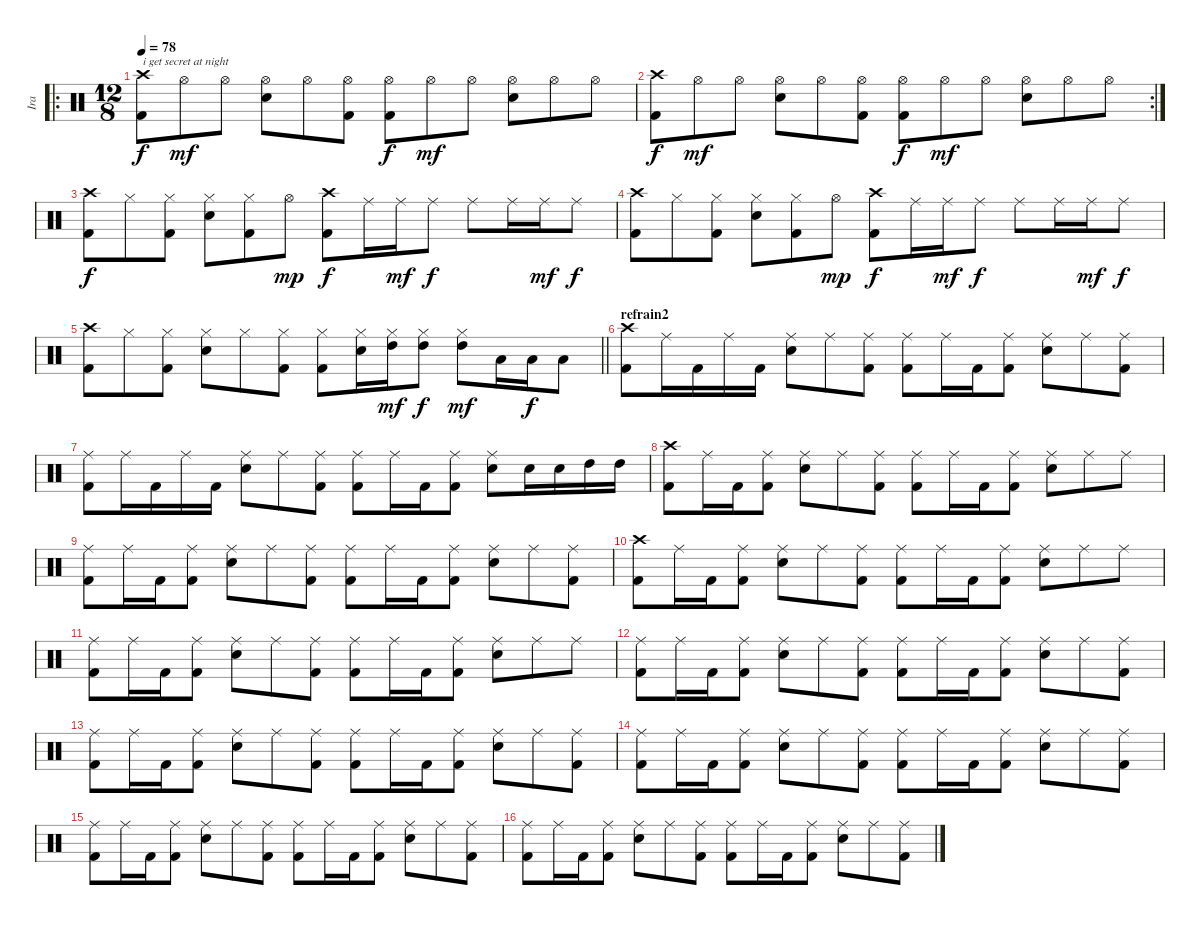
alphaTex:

\track ("Ira" "Ira") {instrument percussion}
\staff {score}
\articulation defaults
\ro
\ts (12 8)
\tempo 78
\clef neutral
\ks c
("Crash high (hit)" "Kick (hit) 2").8{txt "i get secret at night" dy f} "Hi-Hat (open)".8{dy mf} "Hi-Hat (open)".8 ("Hi-Hat (open)" "Snare (hit) 2").8 "Hi-Hat (open)".8 ("Hi-Hat (open)" "Kick (hit) 2").8 ("Hi-Hat (open)" "Kick (hit) 2").8{dy f} "Hi-Hat (open)".8{dy mf} "Hi-Hat (open)".8 ("Hi-Hat (open)" "Snare (hit) 2").8 "Hi-Hat (open)".8 "Hi-Hat (open)".8 |
\rc 2
("Crash high (hit)" "Kick (hit) 2").8{dy f} "Hi-Hat (open)".8{dy mf} "Hi-Hat (open)".8 ("Hi-Hat (open)" "Snare (hit) 2").8 "Hi-Hat (open)".8 ("Hi-Hat (open)" "Kick (hit) 2").8 ("Hi-Hat (open)" "Kick (hit) 2").8{dy f} "Hi-Hat (open)".8{dy mf} "Hi-Hat (open)".8 ("Hi-Hat (open)" "Snare (hit) 2").8 "Hi-Hat (open)".8 "Hi-Hat (open)".8 |
("Crash high (hit)" "Kick (hit) 2").8{dy f} "Hi-Hat (closed)".8 ("Hi-Hat (closed)" "Kick (hit) 2").8 ("Hi-Hat (closed)" "Snare (hit) 2").8 ("Hi-Hat (closed)" "Kick (hit) 2").8 "Hi-Hat (open)".8{dy mp} ("Crash high (hit)" "Kick (hit) 2").8{dy f} "Ride (middle)".16 "Ride (middle)".16{dy mf} "Ride (middle)".8{dy f} "Ride (middle)".8 "Ride (middle)".16 "Ride (middle)".16{dy mf} "Ride (middle)".8{dy f} |
("Crash high (hit)" "Kick (hit) 2").8 "Hi-Hat (closed)".8 ("Hi-Hat (closed)" "Kick (hit) 2").8 ("Hi-Hat (closed)" "Snare (hit) 2").8 ("Hi-Hat (closed)" "Kick (hit) 2").8 "Hi-Hat (open)".8{dy mp} ("Crash high (hit)" "Kick (hit) 2").8{dy f} "Ride (middle)".16 "Ride (middle)".16{dy mf} "Ride (middle)".8{dy f} "Ride (middle)".8 "Ride (middle)".16 "Ride (middle)".16{dy mf} "Ride (middle)".8{dy f} |
\barLineRight lightlight
("Crash high (hit)" "Kick (hit) 2").8 "Hi-Hat (closed)".8 ("Hi-Hat (closed)" "Kick (hit) 2").8 ("Hi-Hat (closed)" "Snare (hit) 2").8 "Hi-Hat (closed)".8 ("Hi-Hat (closed)" "Kick (hit) 2").8 ("Hi-Hat (closed)" "Kick (hit) 2").8 ("Hi-Hat (closed)" "Snare (hit) 2").16 ("Hi-Hat (closed)" "High Tom (hit)").16{dy mf} ("Hi-Hat (closed)" "High Tom (hit)").8{dy f} ("Hi-Hat (closed)" "High Tom (hit)").8{dy mf} "Low Floor Tom (hit)".16 "Low Floor Tom (hit)".16{dy f} "Low Floor Tom (hit)".8 |
\section ("" "refrain2")
("Crash high (hit)" "Kick (hit) 2").8 "Ride (middle)".16 "Kick (hit) 2".16 "Ride (middle)".16 "Kick (hit) 2".16 ("Ride (middle)" "Snare (hit) 2").8 "Ride (middle)".8 ("Ride (middle)" "Kick (hit) 2").8 ("Ride (middle)" "Kick (hit) 2").8 "Ride (middle)".16 "Kick (hit) 2".16 ("Ride (middle)" "Kick (hit) 2").8 ("Ride (middle)" "Snare (hit) 2").8 "Ride (middle)".8 ("Ride (middle)" "Kick (hit) 2").8 |
("Ride (middle)" "Kick (hit) 2").8 "Ride (middle)".16 "Kick (hit) 2".16 "Ride (middle)".16 "Kick (hit) 2".16 ("Ride (middle)" "Snare (hit) 2").8 "Ride (middle)".8 ("Ride (middle)" "Kick (hit) 2").8 ("Ride (middle)" "Kick (hit) 2").8 "Ride (middle)".16 "Kick (hit) 2".16 ("Ride (middle)" "Kick (hit) 2").8 ("Ride (middle)" "Snare (hit) 2").8 "Snare (hit) 2".16 "Snare (hit) 2".16 "High Tom (hit)".16 "High Tom (hit)".16 |
("Crash high (hit)" "Kick (hit) 2").8 "Ride (middle)".16 "Kick (hit) 2".16 ("Ride (middle)" "Kick (hit) 2").8 ("Ride (middle)" "Snare (hit) 2").8 "Ride (middle)".8 ("Ride (middle)" "Kick (hit) 2").8 ("Ride (middle)" "Kick (hit) 2").8 "Ride (middle)".16 "Kick (hit) 2".16 ("Ride (middle)" "Kick (hit) 2").8 ("Ride (middle)" "Snare (hit) 2").8 "Ride (middle)".8 "Ride (middle)".8 |
("Ride (middle)" "Kick (hit) 2").8 "Ride (middle)".16 "Kick (hit) 2".16 ("Ride (middle)" "Kick (hit) 2").8 ("Ride (middle)" "Snare (hit) 2").8 "Ride (middle)".8 ("Ride (middle)" "Kick (hit) 2").8 ("Ride (middle)" "Kick (hit) 2").8 "Ride (middle)".16 "Kick (hit) 2".16 ("Ride (middle)" "Kick (hit) 2").8 ("Ride (middle)" "Snare (hit) 2").8 "Ride (middle)".8 ("Ride (middle)" "Kick (hit) 2").8 |
("Crash high (hit)" "Kick (hit) 2").8 "Ride (middle)".16 "Kick (hit) 2".16 ("Ride (middle)" "Kick (hit) 2").8 ("Ride (middle)" "Snare (hit) 2").8 "Ride (middle)".8 ("Ride (middle)" "Kick (hit) 2").8 ("Ride (middle)" "Kick (hit) 2").8 "Ride (middle)".16 "Kick (hit) 2".16 ("Ride (middle)" "Kick (hit) 2").8 ("Ride (middle)" "Snare (hit) 2").8 "Ride (middle)".8 "Ride (middle)".8 |
("Ride (middle)" "Kick (hit) 2").8 "Ride (middle)".16 "Kick (hit) 2".16 ("Ride (middle)" "Kick (hit) 2").8 ("Ride (middle)" "Snare (hit) 2").8 "Ride (middle)".8 ("Ride (middle)" "Kick (hit) 2").8 ("Ride (middle)" "Kick (hit) 2").8 "Ride (middle)".16 "Kick (hit) 2".16 ("Ride (middle)" "Kick (hit) 2").8 ("Ride (middle)" "Snare (hit) 2").8 "Ride (middle)".8 "Ride (middle)".8 |
("Ride (middle)" "Kick (hit) 2").8 "Ride (middle)".16 "Kick (hit) 2".16 ("Ride (middle)" "Kick (hit) 2").8 ("Ride (middle)" "Snare (hit) 2").8 "Ride (middle)".8 ("Ride (middle)" "Kick (hit) 2").8 ("Ride (middle)" "Kick (hit) 2").8 "Ride (middle)".16 "Kick (hit) 2".16 ("Ride (middle)" "Kick (hit) 2").8 ("Ride (middle)" "Snare (hit) 2").8 "Ride (middle)".8 ("Ride (middle)" "Kick (hit) 2").8 |
("Ride (middle)" "Kick (hit) 2").8 "Ride (middle)".16 "Kick (hit) 2".16 ("Ride (middle)" "Kick (hit) 2").8 ("Ride (middle)" "Snare (hit) 2").8 "Ride (middle)".8 ("Ride (middle)" "Kick (hit) 2").8 ("Ride (middle)" "Kick (hit) 2").8 "Ride (middle)".16 "Kick (hit) 2".16 ("Ride (middle)" "Kick (hit) 2").8 ("Ride (middle)" "Snare (hit) 2").8 "Ride (middle)".8 ("Ride (middle)" "Kick (hit) 2").8 |
("Ride (middle)" "Kick (hit) 2").8 "Ride (middle)".16 "Kick (hit) 2".16 ("Ride (middle)" "Kick (hit) 2").8 ("Ride (middle)" "Snare (hit) 2").8 "Ride (middle)".8 ("Ride (middle)" "Kick (hit) 2").8 ("Ride (middle)" "Kick (hit) 2").8 "Ride (middle)".16 "Kick (hit) 2".16 ("Ride (middle)" "Kick (hit) 2").8 ("Ride (middle)" "Snare (hit) 2").8 "Ride (middle)".8 ("Ride (middle)" "Kick (hit) 2").8 |
("Ride (middle)" "Kick (hit) 2").8 "Ride (middle)".16 "Kick (hit) 2".16 ("Ride (middle)" "Kick (hit) 2").8 ("Ride (middle)" "Snare (hit) 2").8 "Ride (middle)".8 ("Ride (middle)" "Kick (hit) 2").8 ("Ride (middle)" "Kick (hit) 2").8 "Ride (middle)".16 "Kick (hit) 2".16 ("Ride (middle)" "Kick (hit) 2").8 ("Ride (middle)" "Snare (hit) 2").8 "Ride (middle)".8 ("Ride (middle)" "Kick (hit) 2").8 |
("Ride (middle)" "Kick (hit) 2").8 "Ride (middle)".16 "Kick (hit) 2".16 ("Ride (middle)" "Kick (hit) 2").8 ("Ride (middle)" "Snare (hit) 2").8 "Ride (middle)".8 ("Ride (middle)" "Kick (hit) 2").8 ("Ride (middle)" "Kick (hit) 2").8 "Ride (middle)".16 "Kick (hit) 2".16 ("Ride (middle)" "Kick (hit) 2").8 ("Ride (middle)" "Snare (hit) 2").8 "Ride (middle)".8 ("Ride (middle)" "Kick (hit) 2").8
